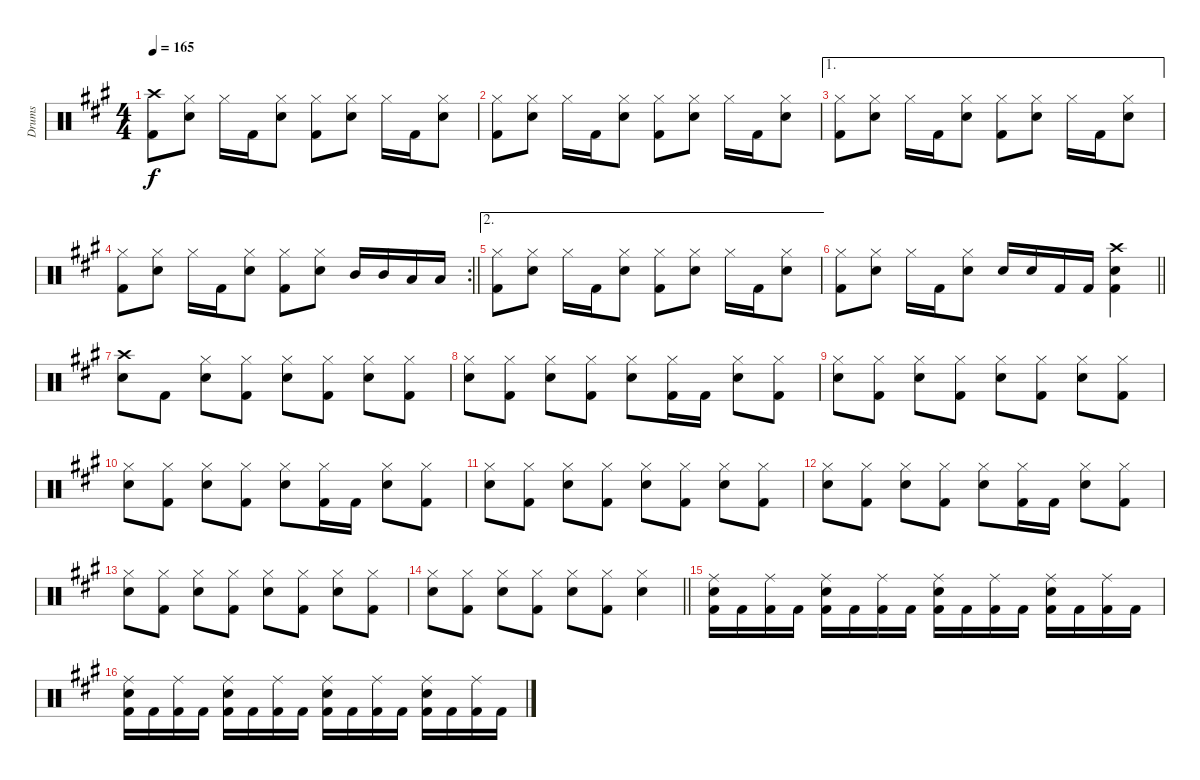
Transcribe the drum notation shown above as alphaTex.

\track ("Drums" "Drums") {instrument percussion}
\staff {score}
\articulation defaults
\ts (4 4)
\tempo 165
\clef neutral
\ks a
("Crash high (hit)" "Kick (hit) 2").8{dy f} ("Hi-Hat (closed)" "Snare (hit) 2").8 "Hi-Hat (closed)".16 "Kick (hit) 2".16 ("Hi-Hat (closed)" "Snare (hit) 2").8 ("Hi-Hat (closed)" "Kick (hit) 2").8 ("Hi-Hat (closed)" "Snare (hit) 2").8 "Hi-Hat (closed)".16 "Kick (hit) 2".16 ("Hi-Hat (closed)" "Snare (hit) 2").8 |
("Hi-Hat (closed)" "Kick (hit) 2").8 ("Hi-Hat (closed)" "Snare (hit) 2").8 "Hi-Hat (closed)".16 "Kick (hit) 2".16 ("Hi-Hat (closed)" "Snare (hit) 2").8 ("Hi-Hat (closed)" "Kick (hit) 2").8 ("Hi-Hat (closed)" "Snare (hit) 2").8 "Hi-Hat (closed)".16 "Kick (hit) 2".16 ("Hi-Hat (closed)" "Snare (hit) 2").8 |
\ae 1
("Hi-Hat (closed)" "Kick (hit) 2").8 ("Hi-Hat (closed)" "Snare (hit) 2").8 "Hi-Hat (closed)".16 "Kick (hit) 2".16 ("Hi-Hat (closed)" "Snare (hit) 2").8 ("Hi-Hat (closed)" "Kick (hit) 2").8 ("Hi-Hat (closed)" "Snare (hit) 2").8 "Hi-Hat (closed)".16 "Kick (hit) 2".16 ("Hi-Hat (closed)" "Snare (hit) 2").8 |
\rc 2
\barLineRight lightlight
("Hi-Hat (closed)" "Kick (hit) 2").8 ("Hi-Hat (closed)" "Snare (hit) 2").8 "Hi-Hat (closed)".16 "Kick (hit) 2".16 ("Hi-Hat (closed)" "Snare (hit) 2").8 ("Hi-Hat (closed)" "Kick (hit) 2").8 ("Hi-Hat (closed)" "Snare (hit) 2").8 "Mid Tom (hit)".16 "Mid Tom (hit)".16 "Low Tom (hit)".16 "Low Tom (hit)".16 |
\ae 2
("Hi-Hat (closed)" "Kick (hit) 2").8 ("Hi-Hat (closed)" "Snare (hit) 2").8 "Hi-Hat (closed)".16 "Kick (hit) 2".16 ("Hi-Hat (closed)" "Snare (hit) 2").8 ("Hi-Hat (closed)" "Kick (hit) 2").8 ("Hi-Hat (closed)" "Snare (hit) 2").8 "Hi-Hat (closed)".16 "Kick (hit) 2".16 ("Hi-Hat (closed)" "Snare (hit) 2").8 |
\barLineRight lightlight
("Hi-Hat (closed)" "Kick (hit) 2").8 ("Hi-Hat (closed)" "Snare (hit) 2").8 "Hi-Hat (closed)".16 "Kick (hit) 2".16 ("Hi-Hat (closed)" "Snare (hit) 2").8 "Snare (hit) 2".16 "Snare (hit) 2".16 "Kick (hit) 2".16 "Kick (hit) 2".16 ("Crash high (hit)" "Snare (hit) 2" "Kick (hit) 2").4 |
("Crash high (hit)" "Snare (hit) 2").8 "Kick (hit) 2".8 ("Hi-Hat (closed)" "Snare (hit) 2").8 ("Hi-Hat (closed)" "Kick (hit) 2").8 ("Hi-Hat (closed)" "Snare (hit) 2").8 ("Hi-Hat (closed)" "Kick (hit) 2").8 ("Hi-Hat (closed)" "Snare (hit) 2").8 ("Hi-Hat (closed)" "Kick (hit) 2").8 |
("Hi-Hat (closed)" "Snare (hit) 2").8 ("Hi-Hat (closed)" "Kick (hit) 2").8 ("Hi-Hat (closed)" "Snare (hit) 2").8 ("Hi-Hat (closed)" "Kick (hit) 2").8 ("Hi-Hat (closed)" "Snare (hit) 2").8 ("Hi-Hat (closed)" "Kick (hit) 2").16 "Kick (hit) 2".16 ("Hi-Hat (closed)" "Snare (hit) 2").8 ("Hi-Hat (closed)" "Kick (hit) 2").8 |
("Hi-Hat (closed)" "Snare (hit) 2").8 ("Hi-Hat (closed)" "Kick (hit) 2").8 ("Hi-Hat (closed)" "Snare (hit) 2").8 ("Hi-Hat (closed)" "Kick (hit) 2").8 ("Hi-Hat (closed)" "Snare (hit) 2").8 ("Hi-Hat (closed)" "Kick (hit) 2").8 ("Hi-Hat (closed)" "Snare (hit) 2").8 ("Hi-Hat (closed)" "Kick (hit) 2").8 |
("Hi-Hat (closed)" "Snare (hit) 2").8 ("Hi-Hat (closed)" "Kick (hit) 2").8 ("Hi-Hat (closed)" "Snare (hit) 2").8 ("Hi-Hat (closed)" "Kick (hit) 2").8 ("Hi-Hat (closed)" "Snare (hit) 2").8 ("Hi-Hat (closed)" "Kick (hit) 2").16 "Kick (hit) 2".16 ("Hi-Hat (closed)" "Snare (hit) 2").8 ("Hi-Hat (closed)" "Kick (hit) 2").8 |
("Hi-Hat (closed)" "Snare (hit) 2").8 ("Hi-Hat (closed)" "Kick (hit) 2").8 ("Hi-Hat (closed)" "Snare (hit) 2").8 ("Hi-Hat (closed)" "Kick (hit) 2").8 ("Hi-Hat (closed)" "Snare (hit) 2").8 ("Hi-Hat (closed)" "Kick (hit) 2").8 ("Hi-Hat (closed)" "Snare (hit) 2").8 ("Hi-Hat (closed)" "Kick (hit) 2").8 |
("Hi-Hat (closed)" "Snare (hit) 2").8 ("Hi-Hat (closed)" "Kick (hit) 2").8 ("Hi-Hat (closed)" "Snare (hit) 2").8 ("Hi-Hat (closed)" "Kick (hit) 2").8 ("Hi-Hat (closed)" "Snare (hit) 2").8 ("Hi-Hat (closed)" "Kick (hit) 2").16 "Kick (hit) 2".16 ("Hi-Hat (closed)" "Snare (hit) 2").8 ("Hi-Hat (closed)" "Kick (hit) 2").8 |
("Hi-Hat (closed)" "Snare (hit) 2").8 ("Hi-Hat (closed)" "Kick (hit) 2").8 ("Hi-Hat (closed)" "Snare (hit) 2").8 ("Hi-Hat (closed)" "Kick (hit) 2").8 ("Hi-Hat (closed)" "Snare (hit) 2").8 ("Hi-Hat (closed)" "Kick (hit) 2").8 ("Hi-Hat (closed)" "Snare (hit) 2").8 ("Hi-Hat (closed)" "Kick (hit) 2").8 |
\barLineRight lightlight
("Hi-Hat (closed)" "Snare (hit) 2").8 ("Hi-Hat (closed)" "Kick (hit) 2").8 ("Hi-Hat (closed)" "Snare (hit) 2").8 ("Hi-Hat (closed)" "Kick (hit) 2").8 ("Hi-Hat (closed)" "Snare (hit) 2").8 ("Hi-Hat (closed)" "Kick (hit) 2").8 ("Hi-Hat (closed)" "Snare (hit) 2").4 |
("Ride (middle)" "Snare (hit) 2" "Kick (hit) 2").16 "Kick (hit) 2".16 ("Ride (middle)" "Kick (hit) 2").16 "Kick (hit) 2".16 ("Ride (middle)" "Snare (hit) 2" "Kick (hit) 2").16 "Kick (hit) 2".16 ("Ride (middle)" "Kick (hit) 2").16 "Kick (hit) 2".16 ("Ride (middle)" "Snare (hit) 2" "Kick (hit) 2").16 "Kick (hit) 2".16 ("Ride (middle)" "Kick (hit) 2").16 "Kick (hit) 2".16 ("Ride (middle)" "Snare (hit) 2" "Kick (hit) 2").16 "Kick (hit) 2".16 ("Ride (middle)" "Kick (hit) 2").16 "Kick (hit) 2".16 |
("Ride (middle)" "Snare (hit) 2" "Kick (hit) 2").16 "Kick (hit) 2".16 ("Ride (middle)" "Kick (hit) 2").16 "Kick (hit) 2".16 ("Ride (middle)" "Snare (hit) 2" "Kick (hit) 2").16 "Kick (hit) 2".16 ("Ride (middle)" "Kick (hit) 2").16 "Kick (hit) 2".16 ("Ride (middle)" "Snare (hit) 2" "Kick (hit) 2").16 "Kick (hit) 2".16 ("Ride (middle)" "Kick (hit) 2").16 "Kick (hit) 2".16 ("Ride (middle)" "Snare (hit) 2" "Kick (hit) 2").16 "Kick (hit) 2".16 ("Ride (middle)" "Kick (hit) 2").16 "Kick (hit) 2".16
